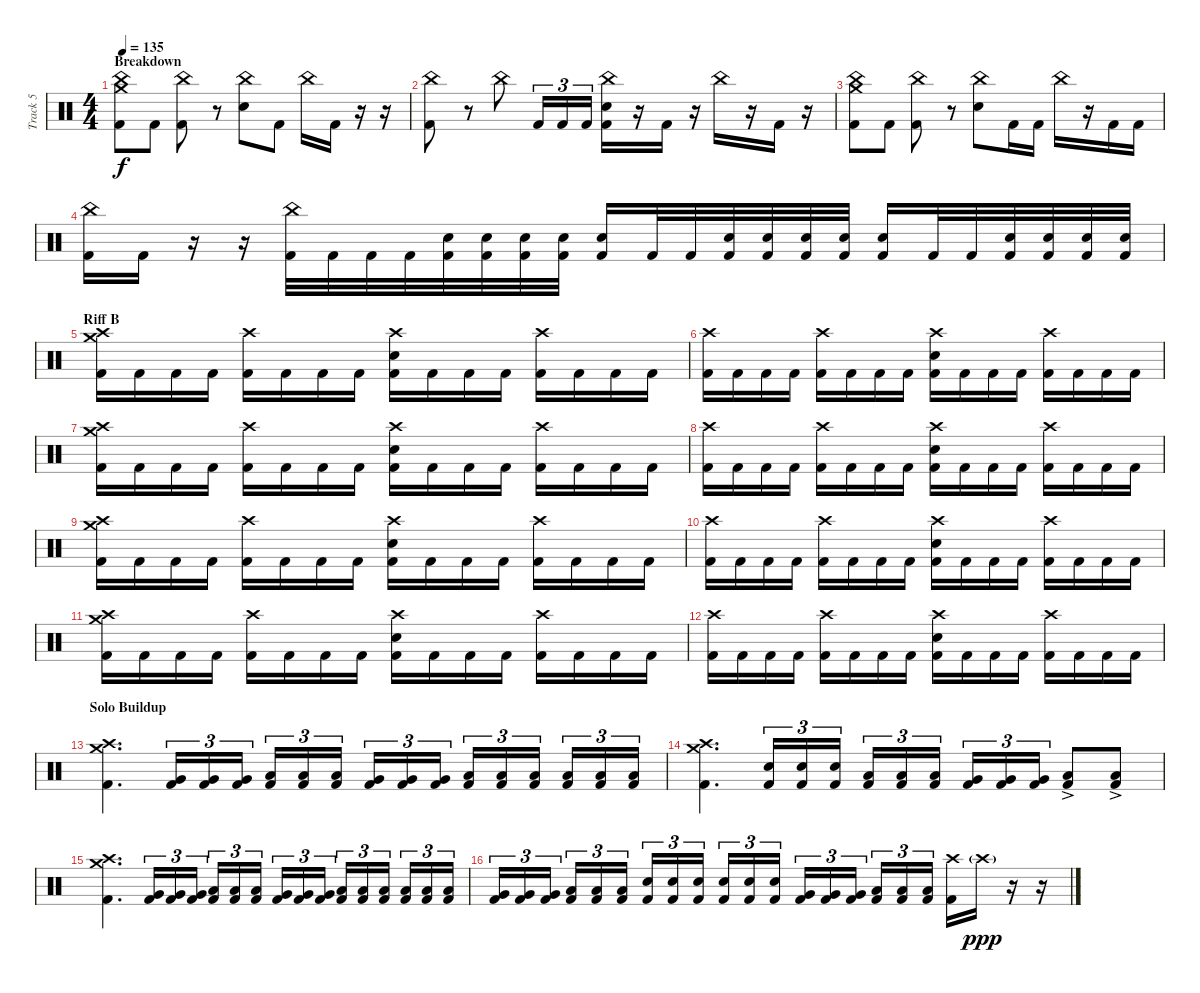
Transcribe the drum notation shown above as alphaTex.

\track ("Track 5" "Track 5") {instrument percussion}
\staff {score}
\articulation defaults
\ts (4 4)
\section ("" "Breakdown")
\tempo 135
\clef neutral
\ks c
("Crash medium (hit)" "China (hit)" "Kick (hit) 2").8{dy f} "Kick (hit) 2".8 ("China (hit)" "Kick (hit) 2").8 r.8 ("Electric Snare (hit)" "China (hit)").8 "Kick (hit) 2".8 "China (hit)".16 "Kick (hit) 2".16 r.16 r.16 |
("China (hit)" "Kick (hit) 2").8 r.8 "China (hit)".8 "Kick (hit) 2".16{tu (3 2)} "Kick (hit) 2".16{tu (3 2)} "Kick (hit) 2".16{tu (3 2)} ("Electric Snare (hit)" "China (hit)" "Kick (hit) 2").16 r.16 "Kick (hit) 2".16 r.16 "China (hit)".16 r.16 "Kick (hit) 2".16 r.16 |
("Crash medium (hit)" "China (hit)" "Kick (hit) 2").8 "Kick (hit) 2".8 ("China (hit)" "Kick (hit) 2").8 r.8 ("Electric Snare (hit)" "China (hit)").8 "Kick (hit) 2".16 "Kick (hit) 2".16 "China (hit)".16 r.16 "Kick (hit) 2".16 "Kick (hit) 2".16 |
("China (hit)" "Kick (hit) 2").16 "Kick (hit) 2".16 r.16 r.16 ("China (hit)" "Kick (hit) 2").32 "Kick (hit) 2".32 "Kick (hit) 2".32 "Kick (hit) 2".32 ("Electric Snare (hit)" "Kick (hit) 2").32 ("Electric Snare (hit)" "Kick (hit) 2").32 ("Electric Snare (hit)" "Kick (hit) 2").32 ("Electric Snare (hit)" "Kick (hit) 2").32 ("Electric Snare (hit)" "Kick (hit) 2").16 "Kick (hit) 2".32 "Kick (hit) 2".32 ("Electric Snare (hit)" "Kick (hit) 2").32 ("Electric Snare (hit)" "Kick (hit) 2").32 ("Electric Snare (hit)" "Kick (hit) 2").32 ("Electric Snare (hit)" "Kick (hit) 2").32 ("Electric Snare (hit)" "Kick (hit) 2").16 "Kick (hit) 2".32 "Kick (hit) 2".32 ("Electric Snare (hit)" "Kick (hit) 2").32 ("Electric Snare (hit)" "Kick (hit) 2").32 ("Electric Snare (hit)" "Kick (hit) 2").32 ("Electric Snare (hit)" "Kick (hit) 2").32 |
\section ("" "Riff B")
("Crash medium (hit)" "Crash high (hit)" "Kick (hit) 2").16 "Kick (hit) 2".16 "Kick (hit) 2".16 "Kick (hit) 2".16 ("Crash high (hit)" "Kick (hit) 2").16 "Kick (hit) 2".16 "Kick (hit) 2".16 "Kick (hit) 2".16 ("Electric Snare (hit)" "Crash high (hit)" "Kick (hit) 2").16 "Kick (hit) 2".16 "Kick (hit) 2".16 "Kick (hit) 2".16 ("Crash high (hit)" "Kick (hit) 2").16 "Kick (hit) 2".16 "Kick (hit) 2".16 "Kick (hit) 2".16 |
("Crash high (hit)" "Kick (hit) 2").16 "Kick (hit) 2".16 "Kick (hit) 2".16 "Kick (hit) 2".16 ("Crash high (hit)" "Kick (hit) 2").16 "Kick (hit) 2".16 "Kick (hit) 2".16 "Kick (hit) 2".16 ("Electric Snare (hit)" "Crash high (hit)" "Kick (hit) 2").16 "Kick (hit) 2".16 "Kick (hit) 2".16 "Kick (hit) 2".16 ("Crash high (hit)" "Kick (hit) 2").16 "Kick (hit) 2".16 "Kick (hit) 2".16 "Kick (hit) 2".16 |
("Crash medium (hit)" "Crash high (hit)" "Kick (hit) 2").16 "Kick (hit) 2".16 "Kick (hit) 2".16 "Kick (hit) 2".16 ("Crash high (hit)" "Kick (hit) 2").16 "Kick (hit) 2".16 "Kick (hit) 2".16 "Kick (hit) 2".16 ("Electric Snare (hit)" "Crash high (hit)" "Kick (hit) 2").16 "Kick (hit) 2".16 "Kick (hit) 2".16 "Kick (hit) 2".16 ("Crash high (hit)" "Kick (hit) 2").16 "Kick (hit) 2".16 "Kick (hit) 2".16 "Kick (hit) 2".16 |
("Crash high (hit)" "Kick (hit) 2").16 "Kick (hit) 2".16 "Kick (hit) 2".16 "Kick (hit) 2".16 ("Crash high (hit)" "Kick (hit) 2").16 "Kick (hit) 2".16 "Kick (hit) 2".16 "Kick (hit) 2".16 ("Electric Snare (hit)" "Crash high (hit)" "Kick (hit) 2").16 "Kick (hit) 2".16 "Kick (hit) 2".16 "Kick (hit) 2".16 ("Crash high (hit)" "Kick (hit) 2").16 "Kick (hit) 2".16 "Kick (hit) 2".16 "Kick (hit) 2".16 |
("Crash medium (hit)" "Crash high (hit)" "Kick (hit) 2").16 "Kick (hit) 2".16 "Kick (hit) 2".16 "Kick (hit) 2".16 ("Crash high (hit)" "Kick (hit) 2").16 "Kick (hit) 2".16 "Kick (hit) 2".16 "Kick (hit) 2".16 ("Electric Snare (hit)" "Crash high (hit)" "Kick (hit) 2").16 "Kick (hit) 2".16 "Kick (hit) 2".16 "Kick (hit) 2".16 ("Crash high (hit)" "Kick (hit) 2").16 "Kick (hit) 2".16 "Kick (hit) 2".16 "Kick (hit) 2".16 |
("Crash high (hit)" "Kick (hit) 2").16 "Kick (hit) 2".16 "Kick (hit) 2".16 "Kick (hit) 2".16 ("Crash high (hit)" "Kick (hit) 2").16 "Kick (hit) 2".16 "Kick (hit) 2".16 "Kick (hit) 2".16 ("Electric Snare (hit)" "Crash high (hit)" "Kick (hit) 2").16 "Kick (hit) 2".16 "Kick (hit) 2".16 "Kick (hit) 2".16 ("Crash high (hit)" "Kick (hit) 2").16 "Kick (hit) 2".16 "Kick (hit) 2".16 "Kick (hit) 2".16 |
("Crash medium (hit)" "Crash high (hit)" "Kick (hit) 2").16 "Kick (hit) 2".16 "Kick (hit) 2".16 "Kick (hit) 2".16 ("Crash high (hit)" "Kick (hit) 2").16 "Kick (hit) 2".16 "Kick (hit) 2".16 "Kick (hit) 2".16 ("Electric Snare (hit)" "Crash high (hit)" "Kick (hit) 2").16 "Kick (hit) 2".16 "Kick (hit) 2".16 "Kick (hit) 2".16 ("Crash high (hit)" "Kick (hit) 2").16 "Kick (hit) 2".16 "Kick (hit) 2".16 "Kick (hit) 2".16 |
("Crash high (hit)" "Kick (hit) 2").16 "Kick (hit) 2".16 "Kick (hit) 2".16 "Kick (hit) 2".16 ("Crash high (hit)" "Kick (hit) 2").16 "Kick (hit) 2".16 "Kick (hit) 2".16 "Kick (hit) 2".16 ("Electric Snare (hit)" "Crash high (hit)" "Kick (hit) 2").16 "Kick (hit) 2".16 "Kick (hit) 2".16 "Kick (hit) 2".16 ("Crash high (hit)" "Kick (hit) 2").16 "Kick (hit) 2".16 "Kick (hit) 2".16 "Kick (hit) 2".16 |
\section ("" "Solo Buildup")
("Crash medium (hit)" "Crash high (hit)" "Kick (hit) 2").4{d} ("Very Low Tom (hit)" "Kick (hit) 2").16{tu (3 2)} ("Very Low Tom (hit)" "Kick (hit) 2").16{tu (3 2)} ("Very Low Tom (hit)" "Kick (hit) 2").16{tu (3 2)} ("Low Floor Tom (hit)" "Kick (hit) 2").16{tu (3 2)} ("Low Floor Tom (hit)" "Kick (hit) 2").16{tu (3 2)} ("Low Floor Tom (hit)" "Kick (hit) 2").16{tu (3 2)} ("Very Low Tom (hit)" "Kick (hit) 2").16{tu (3 2)} ("Very Low Tom (hit)" "Kick (hit) 2").16{tu (3 2)} ("Very Low Tom (hit)" "Kick (hit) 2").16{tu (3 2)} ("Low Floor Tom (hit)" "Kick (hit) 2").16{tu (3 2)} ("Low Floor Tom (hit)" "Kick (hit) 2").16{tu (3 2)} ("Low Floor Tom (hit)" "Kick (hit) 2").16{tu (3 2)} ("Low Floor Tom (hit)" "Kick (hit) 2").16{tu (3 2)} ("Low Floor Tom (hit)" "Kick (hit) 2").16{tu (3 2)} ("Low Floor Tom (hit)" "Kick (hit) 2").16{tu (3 2)} |
("Crash medium (hit)" "Crash high (hit)" "Kick (hit) 2").4{d} ("Electric Snare (hit)" "Kick (hit) 2").16{tu (3 2)} ("Electric Snare (hit)" "Kick (hit) 2").16{tu (3 2)} ("Electric Snare (hit)" "Kick (hit) 2").16{tu (3 2)} ("Low Floor Tom (hit)" "Kick (hit) 2").16{tu (3 2)} ("Low Floor Tom (hit)" "Kick (hit) 2").16{tu (3 2)} ("Low Floor Tom (hit)" "Kick (hit) 2").16{tu (3 2)} ("Very Low Tom (hit)" "Kick (hit) 2").16{tu (3 2)} ("Very Low Tom (hit)" "Kick (hit) 2").16{tu (3 2)} ("Very Low Tom (hit)" "Kick (hit) 2").16{tu (3 2)} ("Low Floor Tom (hit)"{ac} "Kick (hit) 2").8 ("Low Floor Tom (hit)"{ac} "Kick (hit) 2").8 |
("Crash medium (hit)" "Crash high (hit)" "Kick (hit) 2").4{d} ("Very Low Tom (hit)" "Kick (hit) 2").16{tu (3 2)} ("Very Low Tom (hit)" "Kick (hit) 2").16{tu (3 2)} ("Very Low Tom (hit)" "Kick (hit) 2").16{tu (3 2)} ("Low Floor Tom (hit)" "Kick (hit) 2").16{tu (3 2)} ("Low Floor Tom (hit)" "Kick (hit) 2").16{tu (3 2)} ("Low Floor Tom (hit)" "Kick (hit) 2").16{tu (3 2)} ("Very Low Tom (hit)" "Kick (hit) 2").16{tu (3 2)} ("Very Low Tom (hit)" "Kick (hit) 2").16{tu (3 2)} ("Very Low Tom (hit)" "Kick (hit) 2").16{tu (3 2)} ("Low Floor Tom (hit)" "Kick (hit) 2").16{tu (3 2)} ("Low Floor Tom (hit)" "Kick (hit) 2").16{tu (3 2)} ("Low Floor Tom (hit)" "Kick (hit) 2").16{tu (3 2)} ("Low Floor Tom (hit)" "Kick (hit) 2").16{tu (3 2)} ("Low Floor Tom (hit)" "Kick (hit) 2").16{tu (3 2)} ("Low Floor Tom (hit)" "Kick (hit) 2").16{tu (3 2)} |
("Very Low Tom (hit)" "Kick (hit) 2").16{tu (3 2)} ("Very Low Tom (hit)" "Kick (hit) 2").16{tu (3 2)} ("Very Low Tom (hit)" "Kick (hit) 2").16{tu (3 2)} ("Low Floor Tom (hit)" "Kick (hit) 2").16{tu (3 2)} ("Low Floor Tom (hit)" "Kick (hit) 2").16{tu (3 2)} ("Low Floor Tom (hit)" "Kick (hit) 2").16{tu (3 2)} ("Electric Snare (hit)" "Kick (hit) 2").16{tu (3 2)} ("Electric Snare (hit)" "Kick (hit) 2").16{tu (3 2)} ("Electric Snare (hit)" "Kick (hit) 2").16{tu (3 2)} ("Electric Snare (hit)" "Kick (hit) 2").16{tu (3 2)} ("Electric Snare (hit)" "Kick (hit) 2").16{tu (3 2)} ("Electric Snare (hit)" "Kick (hit) 2").16{tu (3 2)} ("Very Low Tom (hit)" "Kick (hit) 2").16{tu (3 2)} ("Very Low Tom (hit)" "Kick (hit) 2").16{tu (3 2)} ("Very Low Tom (hit)" "Kick (hit) 2").16{tu (3 2)} ("Low Floor Tom (hit)" "Kick (hit) 2").16{tu (3 2)} ("Low Floor Tom (hit)" "Kick (hit) 2").16{tu (3 2)} ("Low Floor Tom (hit)" "Kick (hit) 2").16{tu (3 2)} ("Crash high (hit)" "Kick (hit) 2").16 "Crash high (hit)"{g}.16{dy ppp} r.16 r.16
